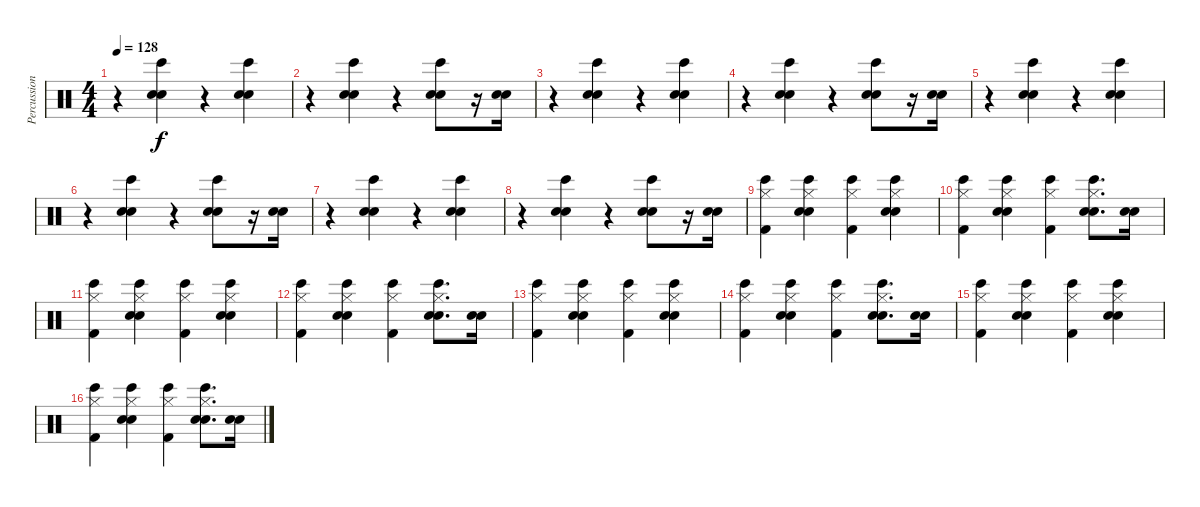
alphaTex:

\track ("Percussion" "Percussion") {instrument percussion}
\staff {score}
\articulation defaults
\ts (4 4)
\tempo 128
\clef neutral
\ks c
r.4{dy f} ("Bongo High (hit)" "Hand Clap (hit)" "Electric Snare (hit)").4 r.4 ("Bongo High (hit)" "Hand Clap (hit)" "Electric Snare (hit)").4 |
r.4 ("Bongo High (hit)" "Hand Clap (hit)" "Electric Snare (hit)").4 r.4 ("Bongo High (hit)" "Hand Clap (hit)" "Electric Snare (hit)").8 r.16 ("Hand Clap (hit)" "Electric Snare (hit)").16 |
r.4 ("Bongo High (hit)" "Hand Clap (hit)" "Electric Snare (hit)").4 r.4 ("Bongo High (hit)" "Hand Clap (hit)" "Electric Snare (hit)").4 |
r.4 ("Bongo High (hit)" "Hand Clap (hit)" "Electric Snare (hit)").4 r.4 ("Bongo High (hit)" "Hand Clap (hit)" "Electric Snare (hit)").8 r.16 ("Hand Clap (hit)" "Electric Snare (hit)").16 |
r.4 ("Bongo High (hit)" "Hand Clap (hit)" "Electric Snare (hit)").4 r.4 ("Bongo High (hit)" "Hand Clap (hit)" "Electric Snare (hit)").4 |
r.4 ("Bongo High (hit)" "Hand Clap (hit)" "Electric Snare (hit)").4 r.4 ("Bongo High (hit)" "Hand Clap (hit)" "Electric Snare (hit)").8 r.16 ("Hand Clap (hit)" "Electric Snare (hit)").16 |
r.4 ("Bongo High (hit)" "Hand Clap (hit)" "Electric Snare (hit)").4 r.4 ("Bongo High (hit)" "Hand Clap (hit)" "Electric Snare (hit)").4 |
r.4 ("Bongo High (hit)" "Hand Clap (hit)" "Electric Snare (hit)").4 r.4 ("Bongo High (hit)" "Hand Clap (hit)" "Electric Snare (hit)").8 r.16 ("Hand Clap (hit)" "Electric Snare (hit)").16 |
("Hi-Hat (closed)" "Bongo High (hit)" "Kick (hit) 2").4 ("Hi-Hat (closed)" "Bongo High (hit)" "Hand Clap (hit)" "Electric Snare (hit)").4 ("Hi-Hat (closed)" "Bongo High (hit)" "Kick (hit) 2").4 ("Hi-Hat (closed)" "Bongo High (hit)" "Hand Clap (hit)" "Electric Snare (hit)").4 |
("Hi-Hat (closed)" "Bongo High (hit)" "Kick (hit) 2").4 ("Hi-Hat (closed)" "Bongo High (hit)" "Hand Clap (hit)" "Electric Snare (hit)").4 ("Hi-Hat (closed)" "Bongo High (hit)" "Kick (hit) 2").4 ("Hi-Hat (closed)" "Bongo High (hit)" "Hand Clap (hit)" "Electric Snare (hit)").8{d} ("Hand Clap (hit)" "Electric Snare (hit)").16 |
("Hi-Hat (closed)" "Bongo High (hit)" "Kick (hit) 2").4 ("Hi-Hat (closed)" "Bongo High (hit)" "Hand Clap (hit)" "Electric Snare (hit)").4 ("Hi-Hat (closed)" "Bongo High (hit)" "Kick (hit) 2").4 ("Hi-Hat (closed)" "Bongo High (hit)" "Hand Clap (hit)" "Electric Snare (hit)").4 |
("Hi-Hat (closed)" "Bongo High (hit)" "Kick (hit) 2").4 ("Hi-Hat (closed)" "Bongo High (hit)" "Hand Clap (hit)" "Electric Snare (hit)").4 ("Hi-Hat (closed)" "Bongo High (hit)" "Kick (hit) 2").4 ("Hi-Hat (closed)" "Bongo High (hit)" "Hand Clap (hit)" "Electric Snare (hit)").8{d} ("Hand Clap (hit)" "Electric Snare (hit)").16 |
("Hi-Hat (closed)" "Bongo High (hit)" "Kick (hit) 2").4 ("Hi-Hat (closed)" "Bongo High (hit)" "Hand Clap (hit)" "Electric Snare (hit)").4 ("Hi-Hat (closed)" "Bongo High (hit)" "Kick (hit) 2").4 ("Hi-Hat (closed)" "Bongo High (hit)" "Hand Clap (hit)" "Electric Snare (hit)").4 |
("Hi-Hat (closed)" "Bongo High (hit)" "Kick (hit) 2").4 ("Hi-Hat (closed)" "Bongo High (hit)" "Hand Clap (hit)" "Electric Snare (hit)").4 ("Hi-Hat (closed)" "Bongo High (hit)" "Kick (hit) 2").4 ("Hi-Hat (closed)" "Bongo High (hit)" "Hand Clap (hit)" "Electric Snare (hit)").8{d} ("Hand Clap (hit)" "Electric Snare (hit)").16 |
("Hi-Hat (closed)" "Bongo High (hit)" "Kick (hit) 2").4 ("Hi-Hat (closed)" "Bongo High (hit)" "Hand Clap (hit)" "Electric Snare (hit)").4 ("Hi-Hat (closed)" "Bongo High (hit)" "Kick (hit) 2").4 ("Hi-Hat (closed)" "Bongo High (hit)" "Hand Clap (hit)" "Electric Snare (hit)").4 |
("Hi-Hat (closed)" "Bongo High (hit)" "Kick (hit) 2").4 ("Hi-Hat (closed)" "Bongo High (hit)" "Hand Clap (hit)" "Electric Snare (hit)").4 ("Hi-Hat (closed)" "Bongo High (hit)" "Kick (hit) 2").4 ("Hi-Hat (closed)" "Bongo High (hit)" "Hand Clap (hit)" "Electric Snare (hit)").8{d} ("Hand Clap (hit)" "Electric Snare (hit)").16
